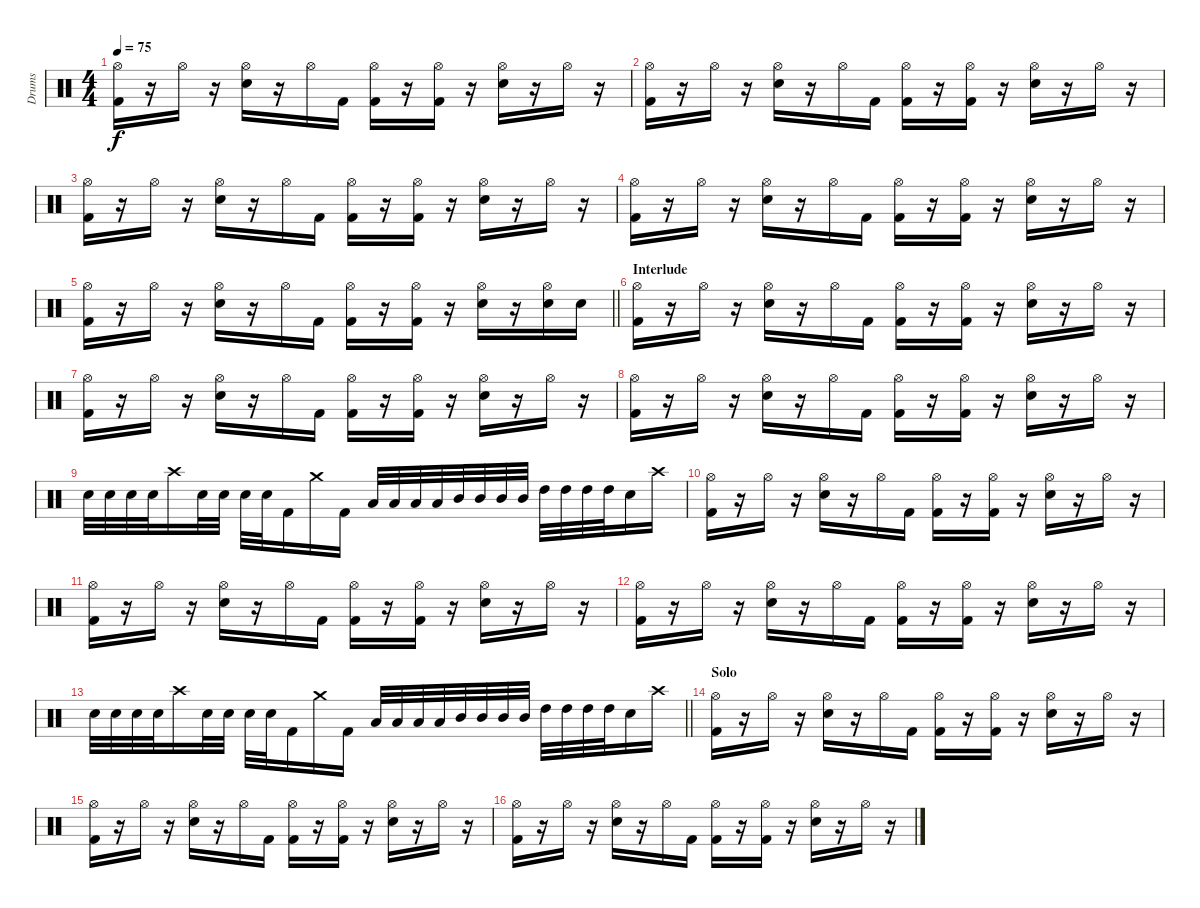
\track ("Drums" "Drums") {instrument percussion}
\staff {score}
\articulation defaults
\ts (4 4)
\tempo 75
\clef neutral
\ks c
("Hi-Hat (open)" "Kick (hit) 2").16{dy f} r.16 "Hi-Hat (open)".16 r.16 ("Hi-Hat (open)" "Electric Snare (hit)").16 r.16 "Hi-Hat (open)".16 "Kick (hit) 2".16 ("Hi-Hat (open)" "Kick (hit) 2").16 r.16 ("Hi-Hat (open)" "Kick (hit) 2").16 r.16 ("Hi-Hat (open)" "Electric Snare (hit)").16 r.16 "Hi-Hat (open)".16 r.16 |
("Hi-Hat (open)" "Kick (hit) 2").16 r.16 "Hi-Hat (open)".16 r.16 ("Hi-Hat (open)" "Electric Snare (hit)").16 r.16 "Hi-Hat (open)".16 "Kick (hit) 2".16 ("Hi-Hat (open)" "Kick (hit) 2").16 r.16 ("Hi-Hat (open)" "Kick (hit) 2").16 r.16 ("Hi-Hat (open)" "Electric Snare (hit)").16 r.16 "Hi-Hat (open)".16 r.16 |
("Hi-Hat (open)" "Kick (hit) 2").16 r.16 "Hi-Hat (open)".16 r.16 ("Hi-Hat (open)" "Electric Snare (hit)").16 r.16 "Hi-Hat (open)".16 "Kick (hit) 2".16 ("Hi-Hat (open)" "Kick (hit) 2").16 r.16 ("Hi-Hat (open)" "Kick (hit) 2").16 r.16 ("Hi-Hat (open)" "Electric Snare (hit)").16 r.16 "Hi-Hat (open)".16 r.16 |
("Hi-Hat (open)" "Kick (hit) 2").16 r.16 "Hi-Hat (open)".16 r.16 ("Hi-Hat (open)" "Electric Snare (hit)").16 r.16 "Hi-Hat (open)".16 "Kick (hit) 2".16 ("Hi-Hat (open)" "Kick (hit) 2").16 r.16 ("Hi-Hat (open)" "Kick (hit) 2").16 r.16 ("Hi-Hat (open)" "Electric Snare (hit)").16 r.16 "Hi-Hat (open)".16 r.16 |
\barLineRight lightlight
("Hi-Hat (open)" "Kick (hit) 2").16 r.16 "Hi-Hat (open)".16 r.16 ("Hi-Hat (open)" "Electric Snare (hit)").16 r.16 "Hi-Hat (open)".16 "Kick (hit) 2".16 ("Hi-Hat (open)" "Kick (hit) 2").16 r.16 ("Hi-Hat (open)" "Kick (hit) 2").16 r.16 ("Hi-Hat (open)" "Electric Snare (hit)").16 r.16 ("Hi-Hat (open)" "Electric Snare (hit)").16 "Electric Snare (hit)".16 |
\section ("" "Interlude")
("Hi-Hat (open)" "Kick (hit) 2").16 r.16 "Hi-Hat (open)".16 r.16 ("Hi-Hat (open)" "Electric Snare (hit)").16 r.16 "Hi-Hat (open)".16 "Kick (hit) 2".16 ("Hi-Hat (open)" "Kick (hit) 2").16 r.16 ("Hi-Hat (open)" "Kick (hit) 2").16 r.16 ("Hi-Hat (open)" "Electric Snare (hit)").16 r.16 "Hi-Hat (open)".16 r.16 |
("Hi-Hat (open)" "Kick (hit) 2").16 r.16 "Hi-Hat (open)".16 r.16 ("Hi-Hat (open)" "Electric Snare (hit)").16 r.16 "Hi-Hat (open)".16 "Kick (hit) 2".16 ("Hi-Hat (open)" "Kick (hit) 2").16 r.16 ("Hi-Hat (open)" "Kick (hit) 2").16 r.16 ("Hi-Hat (open)" "Electric Snare (hit)").16 r.16 "Hi-Hat (open)".16 r.16 |
("Hi-Hat (open)" "Kick (hit) 2").16 r.16 "Hi-Hat (open)".16 r.16 ("Hi-Hat (open)" "Electric Snare (hit)").16 r.16 "Hi-Hat (open)".16 "Kick (hit) 2".16 ("Hi-Hat (open)" "Kick (hit) 2").16 r.16 ("Hi-Hat (open)" "Kick (hit) 2").16 r.16 ("Hi-Hat (open)" "Electric Snare (hit)").16 r.16 "Hi-Hat (open)".16 r.16 |
"Electric Snare (hit)".32 "Electric Snare (hit)".32 "Electric Snare (hit)".32 "Electric Snare (hit)".32 "Crash high (hit)".16 "Electric Snare (hit)".32 "Electric Snare (hit)".32 "Electric Snare (hit)".32 "Electric Snare (hit)".32 "Kick (hit) 2".16 "Crash medium (hit)".16 "Kick (hit) 2".16 "Low Tom (hit)".32 "Low Tom (hit)".32 "Low Tom (hit)".32 "Low Tom (hit)".32 "Mid Tom (hit)".32 "Mid Tom (hit)".32 "Mid Tom (hit)".32 "Mid Tom (hit)".32 "High Tom (hit)".32 "High Tom (hit)".32 "High Tom (hit)".32 "High Tom (hit)".32 "Electric Snare (hit)".16 "Crash high (hit)".16 |
("Hi-Hat (open)" "Kick (hit) 2").16 r.16 "Hi-Hat (open)".16 r.16 ("Hi-Hat (open)" "Electric Snare (hit)").16 r.16 "Hi-Hat (open)".16 "Kick (hit) 2".16 ("Hi-Hat (open)" "Kick (hit) 2").16 r.16 ("Hi-Hat (open)" "Kick (hit) 2").16 r.16 ("Hi-Hat (open)" "Electric Snare (hit)").16 r.16 "Hi-Hat (open)".16 r.16 |
("Hi-Hat (open)" "Kick (hit) 2").16 r.16 "Hi-Hat (open)".16 r.16 ("Hi-Hat (open)" "Electric Snare (hit)").16 r.16 "Hi-Hat (open)".16 "Kick (hit) 2".16 ("Hi-Hat (open)" "Kick (hit) 2").16 r.16 ("Hi-Hat (open)" "Kick (hit) 2").16 r.16 ("Hi-Hat (open)" "Electric Snare (hit)").16 r.16 "Hi-Hat (open)".16 r.16 |
("Hi-Hat (open)" "Kick (hit) 2").16 r.16 "Hi-Hat (open)".16 r.16 ("Hi-Hat (open)" "Electric Snare (hit)").16 r.16 "Hi-Hat (open)".16 "Kick (hit) 2".16 ("Hi-Hat (open)" "Kick (hit) 2").16 r.16 ("Hi-Hat (open)" "Kick (hit) 2").16 r.16 ("Hi-Hat (open)" "Electric Snare (hit)").16 r.16 "Hi-Hat (open)".16 r.16 |
\barLineRight lightlight "Electric Snare (hit)".32 "Electric Snare (hit)".32 "Electric Snare (hit)".32 "Electric Snare (hit)".32 "Crash high (hit)".16 "Electric Snare (hit)".32 "Electric Snare (hit)".32 "Electric Snare (hit)".32 "Electric Snare (hit)".32 "Kick (hit) 2".16 "Crash medium (hit)".16 "Kick (hit) 2".16 "Low Tom (hit)".32 "Low Tom (hit)".32 "Low Tom (hit)".32 "Low Tom (hit)".32 "Mid Tom (hit)".32 "Mid Tom (hit)".32 "Mid Tom (hit)".32 "Mid Tom (hit)".32 "High Tom (hit)".32 "High Tom (hit)".32 "High Tom (hit)".32 "High Tom (hit)".32 "Electric Snare (hit)".16 "Crash high (hit)".16
|
\section ("" "Solo")
("Hi-Hat (open)" "Kick (hit) 2").16 r.16 "Hi-Hat (open)".16 r.16 ("Hi-Hat (open)" "Electric Snare (hit)").16 r.16 "Hi-Hat (open)".16 "Kick (hit) 2".16 ("Hi-Hat (open)" "Kick (hit) 2").16 r.16 ("Hi-Hat (open)" "Kick (hit) 2").16 r.16 ("Hi-Hat (open)" "Electric Snare (hit)").16 r.16 "Hi-Hat (open)".16 r.16 |
("Hi-Hat (open)" "Kick (hit) 2").16 r.16 "Hi-Hat (open)".16 r.16 ("Hi-Hat (open)" "Electric Snare (hit)").16 r.16 "Hi-Hat (open)".16 "Kick (hit) 2".16 ("Hi-Hat (open)" "Kick (hit) 2").16 r.16 ("Hi-Hat (open)" "Kick (hit) 2").16 r.16 ("Hi-Hat (open)" "Electric Snare (hit)").16 r.16 "Hi-Hat (open)".16 r.16 |
("Hi-Hat (open)" "Kick (hit) 2").16 r.16 "Hi-Hat (open)".16 r.16 ("Hi-Hat (open)" "Electric Snare (hit)").16 r.16 "Hi-Hat (open)".16 "Kick (hit) 2".16 ("Hi-Hat (open)" "Kick (hit) 2").16 r.16 ("Hi-Hat (open)" "Kick (hit) 2").16 r.16 ("Hi-Hat (open)" "Electric Snare (hit)").16 r.16 "Hi-Hat (open)".16 r.16
